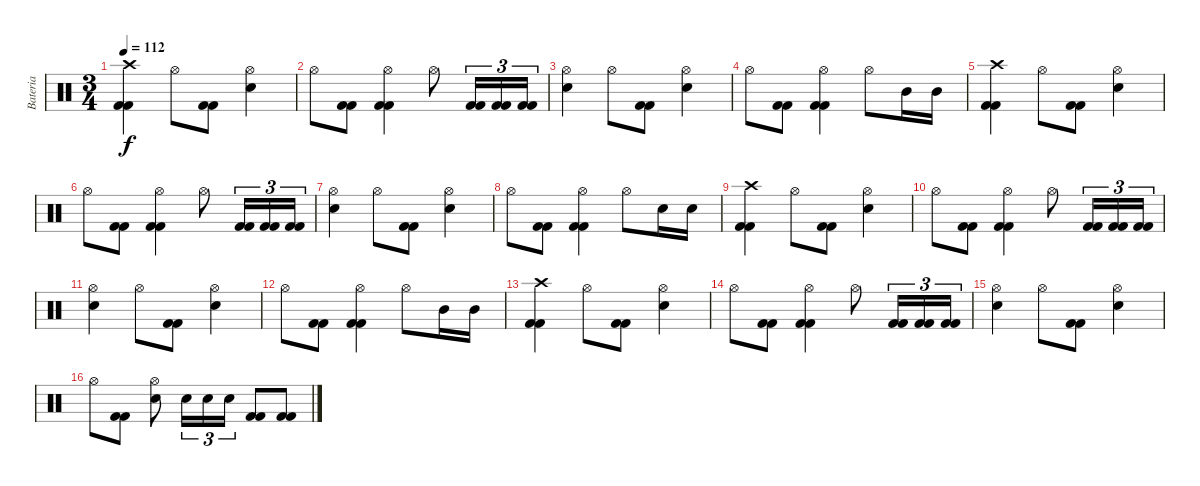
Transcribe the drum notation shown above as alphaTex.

\track ("Bateria" "Bateria") {instrument percussion}
\staff {score}
\articulation defaults
\ts (3 4)
\tempo 112
\clef neutral
\ks c
("Kick (hit) 2" "Kick (hit) 2" "Crash high (hit)").4{dy f} "Hi-Hat (open)".8 ("Kick (hit) 2" "Kick (hit) 2").8 ("Snare (hit) 2" "Hi-Hat (open)").4 |
"Hi-Hat (open)".8 ("Kick (hit) 2" "Kick (hit) 2").8 ("Kick (hit) 2" "Kick (hit) 2" "Hi-Hat (open)").4 "Hi-Hat (open)".8 ("Kick (hit) 2" "Kick (hit) 2").16{tu (3 2)} ("Kick (hit) 2" "Kick (hit) 2").16{tu (3 2)} ("Kick (hit) 2" "Kick (hit) 2").16{tu (3 2)} |
("Snare (hit) 2" "Hi-Hat (open)").4 "Hi-Hat (open)".8 ("Kick (hit) 2" "Kick (hit) 2").8 ("Snare (hit) 2" "Hi-Hat (open)").4 |
"Hi-Hat (open)".8 ("Kick (hit) 2" "Kick (hit) 2").8 ("Kick (hit) 2" "Kick (hit) 2" "Hi-Hat (open)").4 "Hi-Hat (open)".8 "Mid Tom (hit)".16 "Mid Tom (hit)".16 |
("Kick (hit) 2" "Kick (hit) 2" "Crash high (hit)").4 "Hi-Hat (open)".8 ("Kick (hit) 2" "Kick (hit) 2").8 ("Snare (hit) 2" "Hi-Hat (open)").4 |
"Hi-Hat (open)".8 ("Kick (hit) 2" "Kick (hit) 2").8 ("Kick (hit) 2" "Kick (hit) 2" "Hi-Hat (open)").4 "Hi-Hat (open)".8 ("Kick (hit) 2" "Kick (hit) 2").16{tu (3 2)} ("Kick (hit) 2" "Kick (hit) 2").16{tu (3 2)} ("Kick (hit) 2" "Kick (hit) 2").16{tu (3 2)} |
("Snare (hit) 2" "Hi-Hat (open)").4 "Hi-Hat (open)".8 ("Kick (hit) 2" "Kick (hit) 2").8 ("Snare (hit) 2" "Hi-Hat (open)").4 |
"Hi-Hat (open)".8 ("Kick (hit) 2" "Kick (hit) 2").8 ("Kick (hit) 2" "Kick (hit) 2" "Hi-Hat (open)").4 "Hi-Hat (open)".8 "Snare (hit) 2".16 "Snare (hit) 2".16 |
("Kick (hit) 2" "Kick (hit) 2" "Crash high (hit)").4 "Hi-Hat (open)".8 ("Kick (hit) 2" "Kick (hit) 2").8 ("Snare (hit) 2" "Hi-Hat (open)").4 |
"Hi-Hat (open)".8 ("Kick (hit) 2" "Kick (hit) 2").8 ("Kick (hit) 2" "Kick (hit) 2" "Hi-Hat (open)").4 "Hi-Hat (open)".8 ("Kick (hit) 2" "Kick (hit) 2").16{tu (3 2)} ("Kick (hit) 2" "Kick (hit) 2").16{tu (3 2)} ("Kick (hit) 2" "Kick (hit) 2").16{tu (3 2)} |
("Snare (hit) 2" "Hi-Hat (open)").4 "Hi-Hat (open)".8 ("Kick (hit) 2" "Kick (hit) 2").8 ("Snare (hit) 2" "Hi-Hat (open)").4 |
"Hi-Hat (open)".8 ("Kick (hit) 2" "Kick (hit) 2").8 ("Kick (hit) 2" "Kick (hit) 2" "Hi-Hat (open)").4 "Hi-Hat (open)".8 "Mid Tom (hit)".16 "Mid Tom (hit)".16 |
("Kick (hit) 2" "Kick (hit) 2" "Crash high (hit)").4 "Hi-Hat (open)".8 ("Kick (hit) 2" "Kick (hit) 2").8 ("Snare (hit) 2" "Hi-Hat (open)").4 |
"Hi-Hat (open)".8 ("Kick (hit) 2" "Kick (hit) 2").8 ("Kick (hit) 2" "Kick (hit) 2" "Hi-Hat (open)").4 "Hi-Hat (open)".8 ("Kick (hit) 2" "Kick (hit) 2").16{tu (3 2)} ("Kick (hit) 2" "Kick (hit) 2").16{tu (3 2)} ("Kick (hit) 2" "Kick (hit) 2").16{tu (3 2)} |
("Snare (hit) 2" "Hi-Hat (open)").4 "Hi-Hat (open)".8 ("Kick (hit) 2" "Kick (hit) 2").8 ("Snare (hit) 2" "Hi-Hat (open)").4 |
"Hi-Hat (open)".8 ("Kick (hit) 2" "Kick (hit) 2").8 ("Snare (hit) 2" "Hi-Hat (open)").8 "Snare (hit) 2".16{tu (3 2)} "Snare (hit) 2".16{tu (3 2)} "Snare (hit) 2".16{tu (3 2)} ("Kick (hit) 2" "Kick (hit) 2").8 ("Kick (hit) 2" "Kick (hit) 2").8
